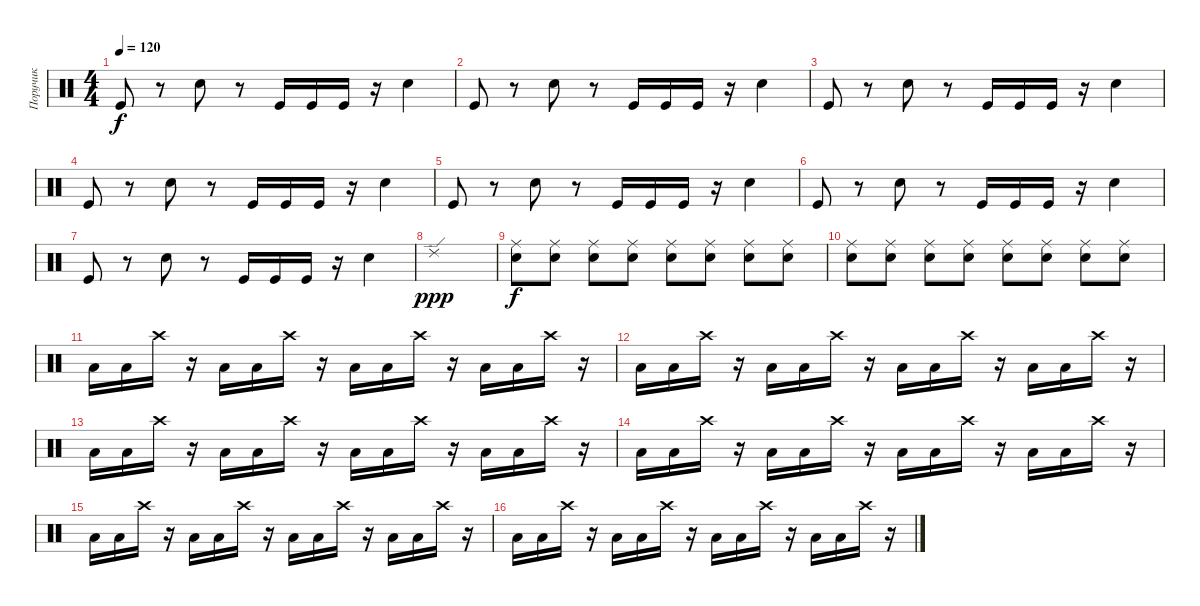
\track ("Поручик" "Поручик") {instrument percussion}
\staff {score}
\articulation defaults
\ts (4 4)
\tempo 120
\clef neutral
\ks c "Kick (hit)".8{dy f}
r.8 "Snare (hit) 2".8 r.8 "Kick (hit)".16 "Kick (hit)".16 "Kick (hit)".16 r.16 "Snare (hit) 2".4 |
"Kick (hit)".8 r.8 "Snare (hit) 2".8 r.8 "Kick (hit)".16 "Kick (hit)".16 "Kick (hit)".16 r.16 "Snare (hit) 2".4 |
"Kick (hit)".8 r.8 "Snare (hit) 2".8 r.8 "Kick (hit)".16 "Kick (hit)".16 "Kick (hit)".16 r.16 "Snare (hit) 2".4 |
"Kick (hit)".8 r.8 "Snare (hit) 2".8 r.8 "Kick (hit)".16 "Kick (hit)".16 "Kick (hit)".16 r.16 "Snare (hit) 2".4 |
"Kick (hit)".8 r.8 "Snare (hit) 2".8 r.8 "Kick (hit)".16 "Kick (hit)".16 "Kick (hit)".16 r.16 "Snare (hit) 2".4 |
"Kick (hit)".8 r.8 "Snare (hit) 2".8 r.8 "Kick (hit)".16 "Kick (hit)".16 "Kick (hit)".16 r.16 "Snare (hit) 2".4 |
"Kick (hit)".8 r.8 "Snare (hit) 2".8 r.8 "Kick (hit)".16 "Kick (hit)".16 "Kick (hit)".16 r.16 "Snare (hit) 2".4 |
"Ride (edge) 2".1{dy ppp} |
("Snare (hit) 2" "Ride (middle)").8{dy f} ("Snare (hit) 2" "Ride (middle)").8 ("Snare (hit) 2" "Ride (middle)").8 ("Snare (hit) 2" "Ride (middle)").8 ("Snare (hit) 2" "Ride (middle)").8 ("Snare (hit) 2" "Ride (middle)").8 ("Snare (hit) 2" "Ride (middle)").8 ("Snare (hit) 2" "Ride (middle)").8 |
("Snare (hit) 2" "Ride (middle)").8 ("Snare (hit) 2" "Ride (middle)").8 ("Snare (hit) 2" "Ride (middle)").8 ("Snare (hit) 2" "Ride (middle)").8 ("Snare (hit) 2" "Ride (middle)").8 ("Snare (hit) 2" "Ride (middle)").8 ("Snare (hit) 2" "Ride (middle)").8 ("Snare (hit) 2" "Ride (middle)").8 |
"Low Tom (hit)".16 "Low Tom (hit)".16 "Crash high (hit)".16 r.16 "Low Tom (hit)".16 "Low Tom (hit)".16 "Crash high (hit)".16 r.16 "Low Tom (hit)".16 "Low Tom (hit)".16 "Crash high (hit)".16 r.16 "Low Tom (hit)".16 "Low Tom (hit)".16 "Crash high (hit)".16 r.16 |
"Low Tom (hit)".16 "Low Tom (hit)".16 "Crash high (hit)".16 r.16 "Low Tom (hit)".16 "Low Tom (hit)".16 "Crash high (hit)".16 r.16 "Low Tom (hit)".16 "Low Tom (hit)".16 "Crash high (hit)".16 r.16 "Low Tom (hit)".16 "Low Tom (hit)".16 "Crash high (hit)".16 r.16 |
"Low Tom (hit)".16 "Low Tom (hit)".16 "Crash high (hit)".16 r.16 "Low Tom (hit)".16 "Low Tom (hit)".16 "Crash high (hit)".16 r.16 "Low Tom (hit)".16 "Low Tom (hit)".16 "Crash high (hit)".16 r.16 "Low Tom (hit)".16 "Low Tom (hit)".16 "Crash high (hit)".16 r.16 |
"Low Tom (hit)".16 "Low Tom (hit)".16 "Crash high (hit)".16 r.16 "Low Tom (hit)".16 "Low Tom (hit)".16 "Crash high (hit)".16 r.16 "Low Tom (hit)".16 "Low Tom (hit)".16 "Crash high (hit)".16 r.16 "Low Tom (hit)".16 "Low Tom (hit)".16 "Crash high (hit)".16 r.16 |
"Low Tom (hit)".16 "Low Tom (hit)".16 "Crash high (hit)".16 r.16 "Low Tom (hit)".16 "Low Tom (hit)".16 "Crash high (hit)".16 r.16 "Low Tom (hit)".16 "Low Tom (hit)".16 "Crash high (hit)".16 r.16 "Low Tom (hit)".16 "Low Tom (hit)".16 "Crash high (hit)".16 r.16 |
"Low Tom (hit)".16 "Low Tom (hit)".16 "Crash high (hit)".16 r.16 "Low Tom (hit)".16 "Low Tom (hit)".16 "Crash high (hit)".16 r.16 "Low Tom (hit)".16 "Low Tom (hit)".16 "Crash high (hit)".16 r.16 "Low Tom (hit)".16 "Low Tom (hit)".16 "Crash high (hit)".16 r.16
